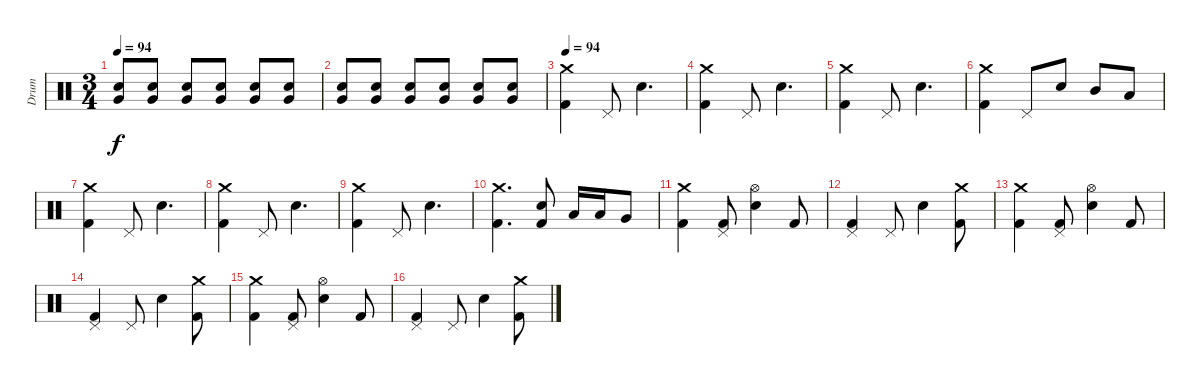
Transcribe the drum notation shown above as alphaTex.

\track ("Drum" "Drum") {instrument percussion}
\staff {score}
\articulation defaults
\ts (3 4)
\tempo 94
\clef neutral
\ks c
("Very Low Tom (hit)" "Electric Snare (hit)").8{dy f} ("Very Low Tom (hit)" "Electric Snare (hit)").8{volume 8} ("Very Low Tom (hit)" "Electric Snare (hit)").8{volume 9} ("Very Low Tom (hit)" "Electric Snare (hit)").8{volume 10} ("Very Low Tom (hit)" "Electric Snare (hit)").8{volume 11} ("Very Low Tom (hit)" "Electric Snare (hit)").8{volume 12} |
("Very Low Tom (hit)" "Electric Snare (hit)").8{volume 13} ("Very Low Tom (hit)" "Electric Snare (hit)").8{volume 16} ("Very Low Tom (hit)" "Electric Snare (hit)").8 ("Very Low Tom (hit)" "Electric Snare (hit)").8 ("Very Low Tom (hit)" "Electric Snare (hit)").8 ("Very Low Tom (hit)" "Electric Snare (hit)").8 |
\tempo 94
("Crash medium (hit)" "Kick (hit) 2").4 "Pedal Hi-Hat (hit)".8 "Electric Snare (hit)".4{d} |
("Crash medium (hit)" "Kick (hit) 2").4 "Pedal Hi-Hat (hit)".8 "Electric Snare (hit)".4{d} |
("Crash medium (hit)" "Kick (hit) 2").4 "Pedal Hi-Hat (hit)".8 "Electric Snare (hit)".4{d} |
("Crash medium (hit)" "Kick (hit) 2").4 "Pedal Hi-Hat (hit)".8 "Electric Snare (hit)".8 "Mid Tom (hit)".8 "Low Tom (hit)".8 |
("Crash medium (hit)" "Kick (hit) 2").4 "Pedal Hi-Hat (hit)".8 "Electric Snare (hit)".4{d} |
("Crash medium (hit)" "Kick (hit) 2").4 "Pedal Hi-Hat (hit)".8 "Electric Snare (hit)".4{d} |
("Crash medium (hit)" "Kick (hit) 2").4 "Pedal Hi-Hat (hit)".8 "Electric Snare (hit)".4{d} |
("Crash medium (hit)" "Kick (hit) 2").4{d} ("Electric Snare (hit)" "Kick (hit) 2").8 "Low Tom (hit)".16 "Low Tom (hit)".16 "Very Low Tom (hit)".8 |
("Crash medium (hit)" "Kick (hit) 2").4 ("Pedal Hi-Hat (hit)" "Kick (hit) 2").8 ("Hi-Hat (open)" "Electric Snare (hit)").4 "Kick (hit) 2".8 |
("Pedal Hi-Hat (hit)" "Kick (hit) 2").4 "Pedal Hi-Hat (hit)".8 "Electric Snare (hit)".4 ("Crash medium (hit)" "Kick (hit) 2").8 |
("Crash medium (hit)" "Kick (hit) 2").4 ("Pedal Hi-Hat (hit)" "Kick (hit) 2").8 ("Hi-Hat (open)" "Electric Snare (hit)").4 "Kick (hit) 2".8 |
("Pedal Hi-Hat (hit)" "Kick (hit) 2").4 "Pedal Hi-Hat (hit)".8 "Electric Snare (hit)".4 ("Crash medium (hit)" "Kick (hit) 2").8 |
("Crash medium (hit)" "Kick (hit) 2").4 ("Pedal Hi-Hat (hit)" "Kick (hit) 2").8 ("Hi-Hat (open)" "Electric Snare (hit)").4 "Kick (hit) 2".8 |
("Pedal Hi-Hat (hit)" "Kick (hit) 2").4 "Pedal Hi-Hat (hit)".8 "Electric Snare (hit)".4 ("Crash medium (hit)" "Kick (hit) 2").8
